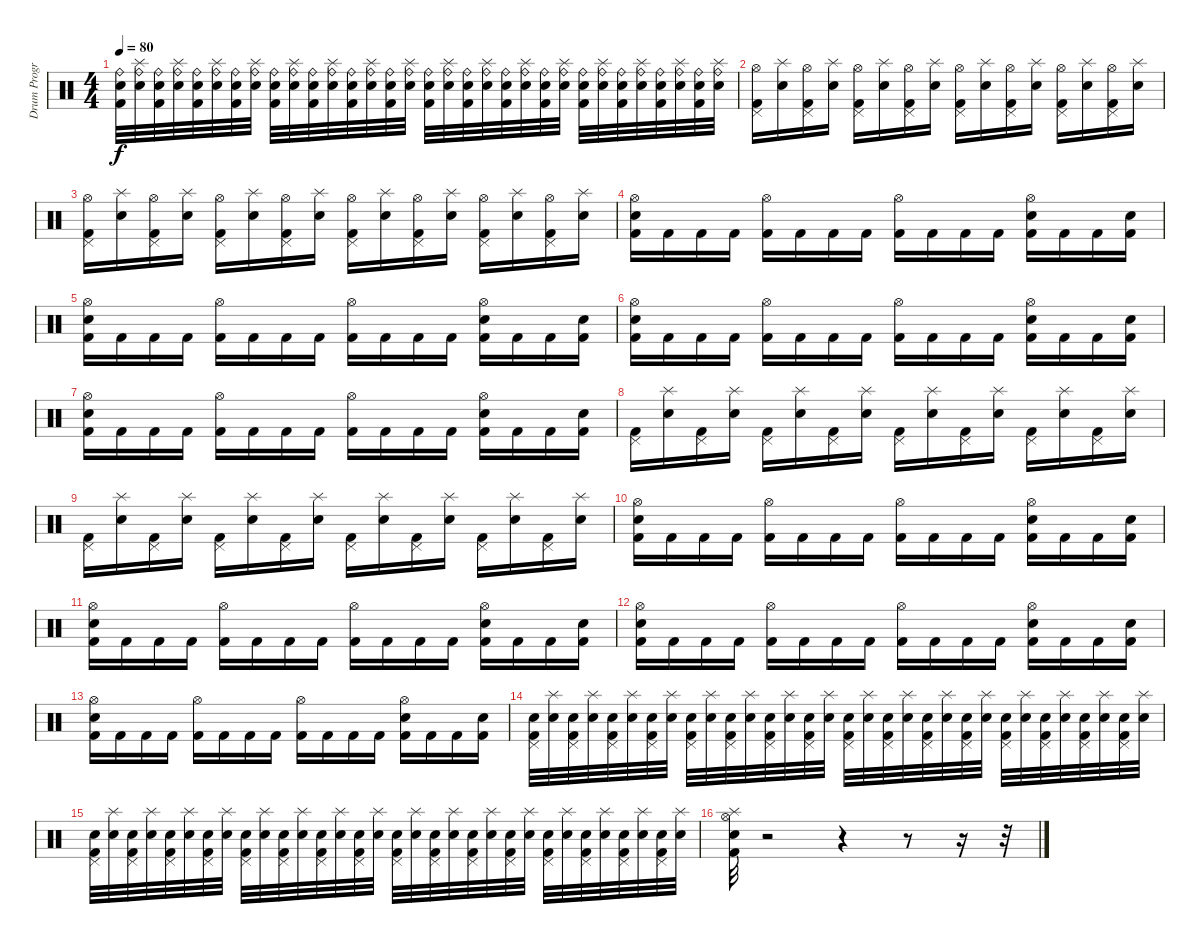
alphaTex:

\track ("Drum Programming" "Drum Progr") {instrument percussion}
\staff {score}
\articulation defaults
\ts (4 4)
\tempo 80
\clef neutral
\ks c
("Ride (bell)" "Electric Snare (hit)" "Kick (hit) 2").32{dy f} ("Ride (bell)" "Splash (hit)" "Electric Snare (hit)").32 ("Ride (bell)" "Electric Snare (hit)" "Kick (hit) 2").32 ("Ride (bell)" "Splash (hit)" "Electric Snare (hit)").32 ("Ride (bell)" "Electric Snare (hit)" "Kick (hit) 2").32 ("Ride (bell)" "Splash (hit)" "Electric Snare (hit)").32 ("Ride (bell)" "Electric Snare (hit)" "Kick (hit) 2").32 ("Ride (bell)" "Splash (hit)" "Electric Snare (hit)").32 ("Ride (bell)" "Electric Snare (hit)" "Kick (hit) 2").32 ("Ride (bell)" "Splash (hit)" "Electric Snare (hit)").32 ("Ride (bell)" "Electric Snare (hit)" "Kick (hit) 2").32 ("Ride (bell)" "Splash (hit)" "Electric Snare (hit)").32 ("Ride (bell)" "Electric Snare (hit)" "Kick (hit) 2").32 ("Ride (bell)" "Splash (hit)" "Electric Snare (hit)").32 ("Ride (bell)" "Electric Snare (hit)" "Kick (hit) 2").32 ("Ride (bell)" "Splash (hit)" "Electric Snare (hit)").32 ("Ride (bell)" "Electric Snare (hit)" "Kick (hit) 2").32 ("Ride (bell)" "Splash (hit)" "Electric Snare (hit)").32 ("Ride (bell)" "Electric Snare (hit)" "Kick (hit) 2").32 ("Ride (bell)" "Splash (hit)" "Electric Snare (hit)").32 ("Ride (bell)" "Electric Snare (hit)" "Kick (hit) 2").32 ("Ride (bell)" "Splash (hit)" "Electric Snare (hit)").32 ("Ride (bell)" "Electric Snare (hit)" "Kick (hit) 2").32 ("Ride (bell)" "Splash (hit)" "Electric Snare (hit)").32 ("Ride (bell)" "Electric Snare (hit)" "Kick (hit) 2").32 ("Ride (bell)" "Splash (hit)" "Electric Snare (hit)").32 ("Ride (bell)" "Electric Snare (hit)" "Kick (hit) 2").32 ("Ride (bell)" "Splash (hit)" "Electric Snare (hit)").32 ("Ride (bell)" "Electric Snare (hit)" "Kick (hit) 2").32 ("Ride (bell)" "Splash (hit)" "Electric Snare (hit)").32 ("Ride (bell)" "Electric Snare (hit)" "Kick (hit) 2").32 ("Ride (bell)" "Splash (hit)" "Electric Snare (hit)").32 |
("Pedal Hi-Hat (hit)" "Hi-Hat (open)" "Kick (hit) 2").16 ("Electric Snare (hit)" "Splash (hit)").16 ("Pedal Hi-Hat (hit)" "Hi-Hat (open)" "Kick (hit) 2").16 ("Electric Snare (hit)" "Splash (hit)").16 ("Pedal Hi-Hat (hit)" "Hi-Hat (open)" "Kick (hit) 2").16 ("Electric Snare (hit)" "Splash (hit)").16 ("Pedal Hi-Hat (hit)" "Hi-Hat (open)" "Kick (hit) 2").16 ("Electric Snare (hit)" "Splash (hit)").16 ("Pedal Hi-Hat (hit)" "Hi-Hat (open)" "Kick (hit) 2").16 ("Electric Snare (hit)" "Splash (hit)").16 ("Pedal Hi-Hat (hit)" "Hi-Hat (open)" "Kick (hit) 2").16 ("Electric Snare (hit)" "Splash (hit)").16 ("Pedal Hi-Hat (hit)" "Hi-Hat (open)" "Kick (hit) 2").16 ("Electric Snare (hit)" "Splash (hit)").16 ("Pedal Hi-Hat (hit)" "Hi-Hat (open)" "Kick (hit) 2").16 ("Electric Snare (hit)" "Splash (hit)").16 |
("Pedal Hi-Hat (hit)" "Hi-Hat (open)" "Kick (hit) 2").16 ("Electric Snare (hit)" "Splash (hit)").16 ("Pedal Hi-Hat (hit)" "Hi-Hat (open)" "Kick (hit) 2").16 ("Electric Snare (hit)" "Splash (hit)").16 ("Pedal Hi-Hat (hit)" "Hi-Hat (open)" "Kick (hit) 2").16 ("Electric Snare (hit)" "Splash (hit)").16 ("Pedal Hi-Hat (hit)" "Hi-Hat (open)" "Kick (hit) 2").16 ("Electric Snare (hit)" "Splash (hit)").16 ("Pedal Hi-Hat (hit)" "Hi-Hat (open)" "Kick (hit) 2").16 ("Electric Snare (hit)" "Splash (hit)").16 ("Pedal Hi-Hat (hit)" "Hi-Hat (open)" "Kick (hit) 2").16 ("Electric Snare (hit)" "Splash (hit)").16 ("Pedal Hi-Hat (hit)" "Hi-Hat (open)" "Kick (hit) 2").16 ("Electric Snare (hit)" "Splash (hit)").16 ("Pedal Hi-Hat (hit)" "Hi-Hat (open)" "Kick (hit) 2").16 ("Electric Snare (hit)" "Splash (hit)").16 |
("Electric Snare (hit)" "Hi-Hat (open)" "Kick (hit) 2").16 "Kick (hit) 2".16 "Kick (hit) 2".16 "Kick (hit) 2".16 ("Hi-Hat (open)" "Kick (hit) 2").16 "Kick (hit) 2".16 "Kick (hit) 2".16 "Kick (hit) 2".16 ("Hi-Hat (open)" "Kick (hit) 2").16 "Kick (hit) 2".16 "Kick (hit) 2".16 "Kick (hit) 2".16 ("Electric Snare (hit)" "Hi-Hat (open)" "Kick (hit) 2").16 "Kick (hit) 2".16 "Kick (hit) 2".16 ("Electric Snare (hit)" "Kick (hit) 2").16 |
("Electric Snare (hit)" "Hi-Hat (open)" "Kick (hit) 2").16 "Kick (hit) 2".16 "Kick (hit) 2".16 "Kick (hit) 2".16 ("Hi-Hat (open)" "Kick (hit) 2").16 "Kick (hit) 2".16 "Kick (hit) 2".16 "Kick (hit) 2".16 ("Hi-Hat (open)" "Kick (hit) 2").16 "Kick (hit) 2".16 "Kick (hit) 2".16 "Kick (hit) 2".16 ("Electric Snare (hit)" "Hi-Hat (open)" "Kick (hit) 2").16 "Kick (hit) 2".16 "Kick (hit) 2".16 ("Electric Snare (hit)" "Kick (hit) 2").16 |
("Electric Snare (hit)" "Hi-Hat (open)" "Kick (hit) 2").16 "Kick (hit) 2".16 "Kick (hit) 2".16 "Kick (hit) 2".16 ("Hi-Hat (open)" "Kick (hit) 2").16 "Kick (hit) 2".16 "Kick (hit) 2".16 "Kick (hit) 2".16 ("Hi-Hat (open)" "Kick (hit) 2").16 "Kick (hit) 2".16 "Kick (hit) 2".16 "Kick (hit) 2".16 ("Electric Snare (hit)" "Hi-Hat (open)" "Kick (hit) 2").16 "Kick (hit) 2".16 "Kick (hit) 2".16 ("Electric Snare (hit)" "Kick (hit) 2").16 |
("Electric Snare (hit)" "Hi-Hat (open)" "Kick (hit) 2").16 "Kick (hit) 2".16 "Kick (hit) 2".16 "Kick (hit) 2".16 ("Hi-Hat (open)" "Kick (hit) 2").16 "Kick (hit) 2".16 "Kick (hit) 2".16 "Kick (hit) 2".16 ("Hi-Hat (open)" "Kick (hit) 2").16 "Kick (hit) 2".16 "Kick (hit) 2".16 "Kick (hit) 2".16 ("Electric Snare (hit)" "Hi-Hat (open)" "Kick (hit) 2").16 "Kick (hit) 2".16 "Kick (hit) 2".16 ("Electric Snare (hit)" "Kick (hit) 2").16 |
("Pedal Hi-Hat (hit)" "Kick (hit) 2").16 ("Electric Snare (hit)" "Splash (hit)").16 ("Pedal Hi-Hat (hit)" "Kick (hit) 2").16 ("Electric Snare (hit)" "Splash (hit)").16 ("Pedal Hi-Hat (hit)" "Kick (hit) 2").16 ("Electric Snare (hit)" "Splash (hit)").16 ("Pedal Hi-Hat (hit)" "Kick (hit) 2").16 ("Electric Snare (hit)" "Splash (hit)").16 ("Pedal Hi-Hat (hit)" "Kick (hit) 2").16 ("Electric Snare (hit)" "Splash (hit)").16 ("Pedal Hi-Hat (hit)" "Kick (hit) 2").16 ("Electric Snare (hit)" "Splash (hit)").16 ("Pedal Hi-Hat (hit)" "Kick (hit) 2").16 ("Electric Snare (hit)" "Splash (hit)").16 ("Pedal Hi-Hat (hit)" "Kick (hit) 2").16 ("Electric Snare (hit)" "Splash (hit)").16 |
("Pedal Hi-Hat (hit)" "Kick (hit) 2").16 ("Electric Snare (hit)" "Splash (hit)").16 ("Pedal Hi-Hat (hit)" "Kick (hit) 2").16 ("Electric Snare (hit)" "Splash (hit)").16 ("Pedal Hi-Hat (hit)" "Kick (hit) 2").16 ("Electric Snare (hit)" "Splash (hit)").16 ("Pedal Hi-Hat (hit)" "Kick (hit) 2").16 ("Electric Snare (hit)" "Splash (hit)").16 ("Pedal Hi-Hat (hit)" "Kick (hit) 2").16 ("Electric Snare (hit)" "Splash (hit)").16 ("Pedal Hi-Hat (hit)" "Kick (hit) 2").16 ("Electric Snare (hit)" "Splash (hit)").16 ("Pedal Hi-Hat (hit)" "Kick (hit) 2").16 ("Electric Snare (hit)" "Splash (hit)").16 ("Pedal Hi-Hat (hit)" "Kick (hit) 2").16 ("Electric Snare (hit)" "Splash (hit)").16 |
("Electric Snare (hit)" "Hi-Hat (open)" "Kick (hit) 2").16 "Kick (hit) 2".16 "Kick (hit) 2".16 "Kick (hit) 2".16 ("Hi-Hat (open)" "Kick (hit) 2").16 "Kick (hit) 2".16 "Kick (hit) 2".16 "Kick (hit) 2".16 ("Hi-Hat (open)" "Kick (hit) 2").16 "Kick (hit) 2".16 "Kick (hit) 2".16 "Kick (hit) 2".16 ("Electric Snare (hit)" "Hi-Hat (open)" "Kick (hit) 2").16 "Kick (hit) 2".16 "Kick (hit) 2".16 ("Electric Snare (hit)" "Kick (hit) 2").16 |
("Electric Snare (hit)" "Hi-Hat (open)" "Kick (hit) 2").16 "Kick (hit) 2".16 "Kick (hit) 2".16 "Kick (hit) 2".16 ("Hi-Hat (open)" "Kick (hit) 2").16 "Kick (hit) 2".16 "Kick (hit) 2".16 "Kick (hit) 2".16 ("Hi-Hat (open)" "Kick (hit) 2").16 "Kick (hit) 2".16 "Kick (hit) 2".16 "Kick (hit) 2".16 ("Electric Snare (hit)" "Hi-Hat (open)" "Kick (hit) 2").16 "Kick (hit) 2".16 "Kick (hit) 2".16 ("Electric Snare (hit)" "Kick (hit) 2").16 |
("Electric Snare (hit)" "Hi-Hat (open)" "Kick (hit) 2").16 "Kick (hit) 2".16 "Kick (hit) 2".16 "Kick (hit) 2".16 ("Hi-Hat (open)" "Kick (hit) 2").16 "Kick (hit) 2".16 "Kick (hit) 2".16 "Kick (hit) 2".16 ("Hi-Hat (open)" "Kick (hit) 2").16 "Kick (hit) 2".16 "Kick (hit) 2".16 "Kick (hit) 2".16 ("Electric Snare (hit)" "Hi-Hat (open)" "Kick (hit) 2").16 "Kick (hit) 2".16 "Kick (hit) 2".16 ("Electric Snare (hit)" "Kick (hit) 2").16 |
("Electric Snare (hit)" "Hi-Hat (open)" "Kick (hit) 2").16 "Kick (hit) 2".16 "Kick (hit) 2".16 "Kick (hit) 2".16 ("Hi-Hat (open)" "Kick (hit) 2").16 "Kick (hit) 2".16 "Kick (hit) 2".16 "Kick (hit) 2".16 ("Hi-Hat (open)" "Kick (hit) 2").16 "Kick (hit) 2".16 "Kick (hit) 2".16 "Kick (hit) 2".16 ("Electric Snare (hit)" "Hi-Hat (open)" "Kick (hit) 2").16 "Kick (hit) 2".16 "Kick (hit) 2".16 ("Electric Snare (hit)" "Kick (hit) 2").16 |
("Pedal Hi-Hat (hit)" "Electric Snare (hit)" "Kick (hit) 2").32 ("Electric Snare (hit)" "Splash (hit)").32 ("Pedal Hi-Hat (hit)" "Electric Snare (hit)" "Kick (hit) 2").32 ("Electric Snare (hit)" "Splash (hit)").32 ("Pedal Hi-Hat (hit)" "Electric Snare (hit)" "Kick (hit) 2").32 ("Electric Snare (hit)" "Splash (hit)").32 ("Pedal Hi-Hat (hit)" "Electric Snare (hit)" "Kick (hit) 2").32 ("Electric Snare (hit)" "Splash (hit)").32 ("Pedal Hi-Hat (hit)" "Electric Snare (hit)" "Kick (hit) 2").32 ("Electric Snare (hit)" "Splash (hit)").32 ("Pedal Hi-Hat (hit)" "Electric Snare (hit)" "Kick (hit) 2").32 ("Electric Snare (hit)" "Splash (hit)").32 ("Pedal Hi-Hat (hit)" "Electric Snare (hit)" "Kick (hit) 2").32 ("Electric Snare (hit)" "Splash (hit)").32 ("Pedal Hi-Hat (hit)" "Electric Snare (hit)" "Kick (hit) 2").32 ("Electric Snare (hit)" "Splash (hit)").32 ("Pedal Hi-Hat (hit)" "Electric Snare (hit)" "Kick (hit) 2").32 ("Electric Snare (hit)" "Splash (hit)").32 ("Pedal Hi-Hat (hit)" "Electric Snare (hit)" "Kick (hit) 2").32 ("Electric Snare (hit)" "Splash (hit)").32 ("Pedal Hi-Hat (hit)" "Electric Snare (hit)" "Kick (hit) 2").32 ("Electric Snare (hit)" "Splash (hit)").32 ("Pedal Hi-Hat (hit)" "Electric Snare (hit)" "Kick (hit) 2").32 ("Electric Snare (hit)" "Splash (hit)").32 ("Pedal Hi-Hat (hit)" "Electric Snare (hit)" "Kick (hit) 2").32 ("Electric Snare (hit)" "Splash (hit)").32 ("Pedal Hi-Hat (hit)" "Electric Snare (hit)" "Kick (hit) 2").32 ("Electric Snare (hit)" "Splash (hit)").32 ("Pedal Hi-Hat (hit)" "Electric Snare (hit)" "Kick (hit) 2").32 ("Electric Snare (hit)" "Splash (hit)").32 ("Pedal Hi-Hat (hit)" "Electric Snare (hit)" "Kick (hit) 2").32 ("Electric Snare (hit)" "Splash (hit)").32 |
("Pedal Hi-Hat (hit)" "Electric Snare (hit)" "Kick (hit) 2").32 ("Electric Snare (hit)" "Splash (hit)").32 ("Pedal Hi-Hat (hit)" "Electric Snare (hit)" "Kick (hit) 2").32 ("Electric Snare (hit)" "Splash (hit)").32 ("Pedal Hi-Hat (hit)" "Electric Snare (hit)" "Kick (hit) 2").32 ("Electric Snare (hit)" "Splash (hit)").32 ("Pedal Hi-Hat (hit)" "Electric Snare (hit)" "Kick (hit) 2").32 ("Electric Snare (hit)" "Splash (hit)").32 ("Pedal Hi-Hat (hit)" "Electric Snare (hit)" "Kick (hit) 2").32 ("Electric Snare (hit)" "Splash (hit)").32 ("Pedal Hi-Hat (hit)" "Electric Snare (hit)" "Kick (hit) 2").32 ("Electric Snare (hit)" "Splash (hit)").32 ("Pedal Hi-Hat (hit)" "Electric Snare (hit)" "Kick (hit) 2").32 ("Electric Snare (hit)" "Splash (hit)").32 ("Pedal Hi-Hat (hit)" "Electric Snare (hit)" "Kick (hit) 2").32 ("Electric Snare (hit)" "Splash (hit)").32 ("Pedal Hi-Hat (hit)" "Electric Snare (hit)" "Kick (hit) 2").32 ("Electric Snare (hit)" "Splash (hit)").32 ("Pedal Hi-Hat (hit)" "Electric Snare (hit)" "Kick (hit) 2").32 ("Electric Snare (hit)" "Splash (hit)").32 ("Pedal Hi-Hat (hit)" "Electric Snare (hit)" "Kick (hit) 2").32 ("Electric Snare (hit)" "Splash (hit)").32 ("Pedal Hi-Hat (hit)" "Electric Snare (hit)" "Kick (hit) 2").32 ("Electric Snare (hit)" "Splash (hit)").32 ("Pedal Hi-Hat (hit)" "Electric Snare (hit)" "Kick (hit) 2").32 ("Electric Snare (hit)" "Splash (hit)").32 ("Pedal Hi-Hat (hit)" "Electric Snare (hit)" "Kick (hit) 2").32 ("Electric Snare (hit)" "Splash (hit)").32 ("Pedal Hi-Hat (hit)" "Electric Snare (hit)" "Kick (hit) 2").32 ("Electric Snare (hit)" "Splash (hit)").32 ("Pedal Hi-Hat (hit)" "Electric Snare (hit)" "Kick (hit) 2").32 ("Electric Snare (hit)" "Splash (hit)").32 |
("Splash (hit)" "Hi-Hat (open)" "Electric Snare (hit)" "Kick (hit) 2").32 r.2 r.4 r.8 r.16 r.32
